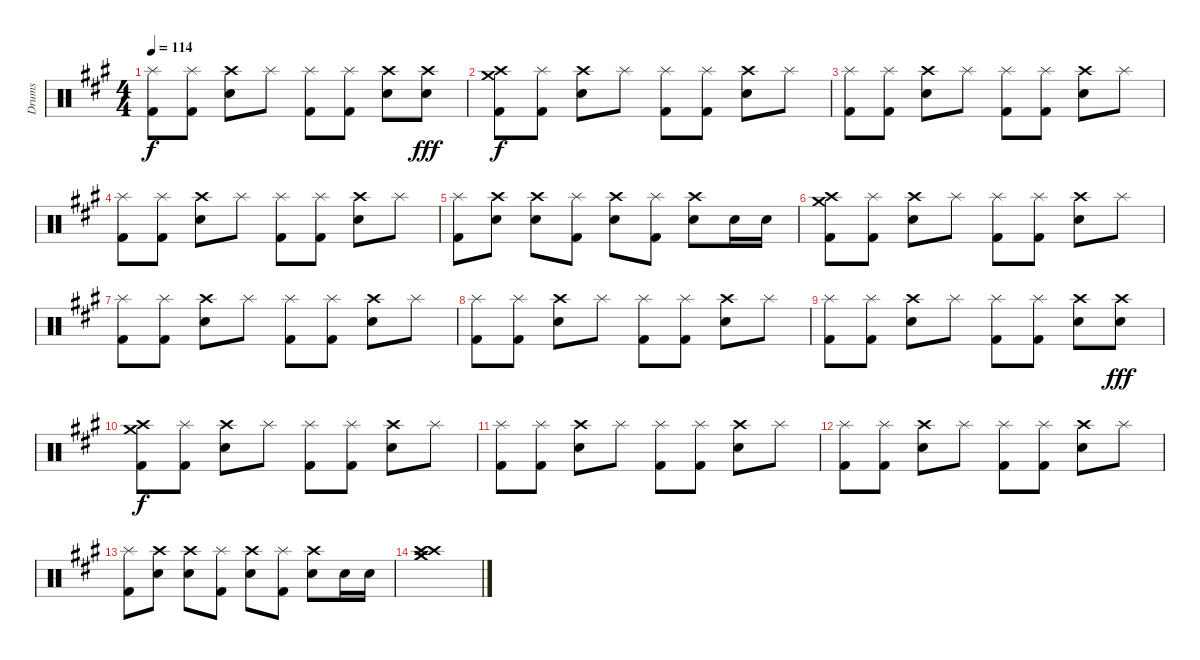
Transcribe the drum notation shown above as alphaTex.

\track ("Drums" "Drums") {instrument percussion}
\staff {score}
\articulation defaults
\ts (4 4)
\tempo 114
\clef neutral
\ks a
("Splash (hit)" "Kick (hit) 2").8{dy f} ("Splash (hit)" "Kick (hit) 2").8 ("Crash high (hit)" "Snare (hit) 2").8 "Splash (hit)".8 ("Splash (hit)" "Kick (hit) 2").8 ("Splash (hit)" "Kick (hit) 2").8 ("Crash high (hit)" "Snare (hit) 2").8 ("Crash high (hit)" "Snare (hit) 2").8{dy fff} |
("Crash high (hit)" "Crash medium (hit)" "Kick (hit) 2").8{dy f} ("Splash (hit)" "Kick (hit) 2").8 ("Crash high (hit)" "Snare (hit) 2").8 "Splash (hit)".8 ("Splash (hit)" "Kick (hit) 2").8 ("Splash (hit)" "Kick (hit) 2").8 ("Crash high (hit)" "Snare (hit) 2").8 "Splash (hit)".8 |
("Splash (hit)" "Kick (hit) 2").8 ("Splash (hit)" "Kick (hit) 2").8 ("Crash high (hit)" "Snare (hit) 2").8 "Splash (hit)".8 ("Splash (hit)" "Kick (hit) 2").8 ("Splash (hit)" "Kick (hit) 2").8 ("Crash high (hit)" "Snare (hit) 2").8 "Splash (hit)".8 |
("Splash (hit)" "Kick (hit) 2").8 ("Splash (hit)" "Kick (hit) 2").8 ("Crash high (hit)" "Snare (hit) 2").8 "Splash (hit)".8 ("Splash (hit)" "Kick (hit) 2").8 ("Splash (hit)" "Kick (hit) 2").8 ("Crash high (hit)" "Snare (hit) 2").8 "Splash (hit)".8 |
("Splash (hit)" "Kick (hit) 2").8 ("Crash high (hit)" "Snare (hit) 2").8 ("Crash high (hit)" "Snare (hit) 2").8 ("Splash (hit)" "Kick (hit) 2").8 ("Crash high (hit)" "Snare (hit) 2").8 ("Splash (hit)" "Kick (hit) 2").8 ("Crash high (hit)" "Snare (hit) 2").8 "Snare (hit) 2".16 "Snare (hit) 2".16 |
("Crash high (hit)" "Crash medium (hit)" "Kick (hit) 2").8 ("Splash (hit)" "Kick (hit) 2").8 ("Crash high (hit)" "Snare (hit) 2").8 "Splash (hit)".8 ("Splash (hit)" "Kick (hit) 2").8 ("Splash (hit)" "Kick (hit) 2").8 ("Crash high (hit)" "Snare (hit) 2").8 "Splash (hit)".8 |
("Splash (hit)" "Kick (hit) 2").8 ("Splash (hit)" "Kick (hit) 2").8 ("Crash high (hit)" "Snare (hit) 2").8 "Splash (hit)".8 ("Splash (hit)" "Kick (hit) 2").8 ("Splash (hit)" "Kick (hit) 2").8 ("Crash high (hit)" "Snare (hit) 2").8 "Splash (hit)".8 |
("Splash (hit)" "Kick (hit) 2").8 ("Splash (hit)" "Kick (hit) 2").8 ("Crash high (hit)" "Snare (hit) 2").8 "Splash (hit)".8 ("Splash (hit)" "Kick (hit) 2").8 ("Splash (hit)" "Kick (hit) 2").8 ("Crash high (hit)" "Snare (hit) 2").8 "Splash (hit)".8 |
("Splash (hit)" "Kick (hit) 2").8 ("Splash (hit)" "Kick (hit) 2").8 ("Crash high (hit)" "Snare (hit) 2").8 "Splash (hit)".8 ("Splash (hit)" "Kick (hit) 2").8 ("Splash (hit)" "Kick (hit) 2").8 ("Crash high (hit)" "Snare (hit) 2").8 ("Crash high (hit)" "Snare (hit) 2").8{dy fff} |
("Crash high (hit)" "Crash medium (hit)" "Kick (hit) 2").8{dy f} ("Splash (hit)" "Kick (hit) 2").8 ("Crash high (hit)" "Snare (hit) 2").8 "Splash (hit)".8 ("Splash (hit)" "Kick (hit) 2").8 ("Splash (hit)" "Kick (hit) 2").8 ("Crash high (hit)" "Snare (hit) 2").8 "Splash (hit)".8 |
("Splash (hit)" "Kick (hit) 2").8 ("Splash (hit)" "Kick (hit) 2").8 ("Crash high (hit)" "Snare (hit) 2").8 "Splash (hit)".8 ("Splash (hit)" "Kick (hit) 2").8 ("Splash (hit)" "Kick (hit) 2").8 ("Crash high (hit)" "Snare (hit) 2").8 "Splash (hit)".8 |
("Splash (hit)" "Kick (hit) 2").8 ("Splash (hit)" "Kick (hit) 2").8 ("Crash high (hit)" "Snare (hit) 2").8 "Splash (hit)".8 ("Splash (hit)" "Kick (hit) 2").8 ("Splash (hit)" "Kick (hit) 2").8 ("Crash high (hit)" "Snare (hit) 2").8 "Splash (hit)".8 |
("Splash (hit)" "Kick (hit) 2").8 ("Crash high (hit)" "Snare (hit) 2").8 ("Crash high (hit)" "Snare (hit) 2").8 ("Splash (hit)" "Kick (hit) 2").8 ("Crash high (hit)" "Snare (hit) 2").8 ("Splash (hit)" "Kick (hit) 2").8 ("Crash high (hit)" "Snare (hit) 2").8 "Snare (hit) 2".16 "Snare (hit) 2".16 |
("Crash high (hit)" "Crash high (hit)" "Crash medium (hit)" "Crash medium (hit)").1
